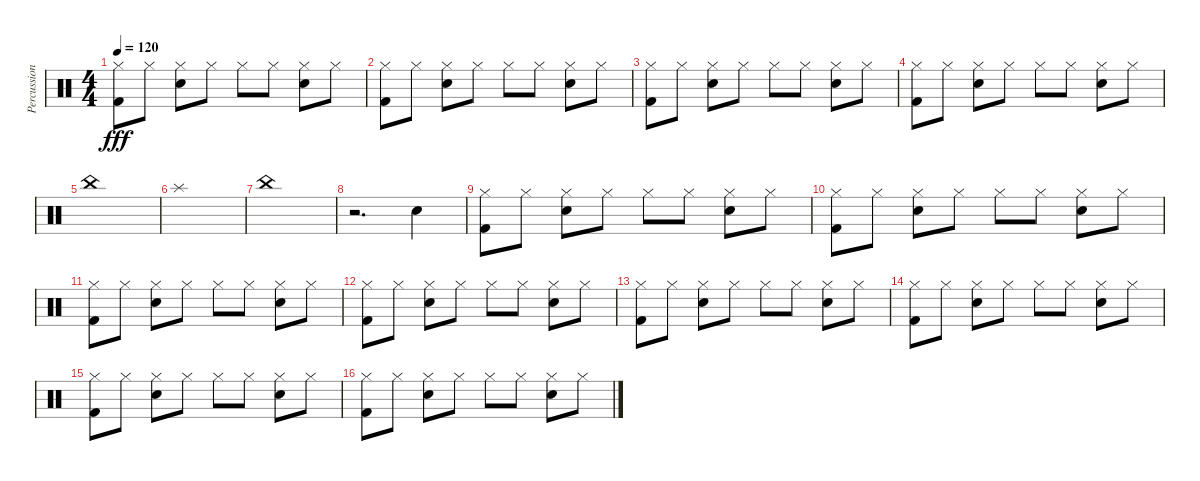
\track ("Percussions" "Percussion") {instrument percussion}
\staff {score}
\articulation defaults
\ts (4 4)
\tempo 120
\clef neutral
\ks c
("Hi-Hat (closed)" "Kick (hit) 2").8{dy fff} "Hi-Hat (closed)".8 ("Hi-Hat (closed)" "Electric Snare (hit)").8 "Hi-Hat (closed)".8 "Hi-Hat (closed)".8 "Hi-Hat (closed)".8 ("Hi-Hat (closed)" "Electric Snare (hit)").8 "Hi-Hat (closed)".8 |
("Hi-Hat (closed)" "Kick (hit) 2").8 "Hi-Hat (closed)".8 ("Hi-Hat (closed)" "Electric Snare (hit)").8 "Hi-Hat (closed)".8 "Hi-Hat (closed)".8 "Hi-Hat (closed)".8 ("Hi-Hat (closed)" "Electric Snare (hit)").8 "Hi-Hat (closed)".8 |
("Hi-Hat (closed)" "Kick (hit) 2").8 "Hi-Hat (closed)".8 ("Hi-Hat (closed)" "Electric Snare (hit)").8 "Hi-Hat (closed)".8 "Hi-Hat (closed)".8 "Hi-Hat (closed)".8 ("Hi-Hat (closed)" "Electric Snare (hit)").8 "Hi-Hat (closed)".8 |
("Hi-Hat (closed)" "Kick (hit) 2").8 "Hi-Hat (closed)".8 ("Hi-Hat (closed)" "Electric Snare (hit)").8 "Hi-Hat (closed)".8 "Hi-Hat (closed)".8 "Hi-Hat (closed)".8 ("Hi-Hat (closed)" "Electric Snare (hit)").8 "Hi-Hat (closed)".8 |
"China (hit)".1 |
"Splash (hit)".1 |
"China (hit)".1 |
r.2{d} "Electric Snare (hit)".4 |
("Hi-Hat (closed)" "Kick (hit) 2").8 "Hi-Hat (closed)".8 ("Hi-Hat (closed)" "Electric Snare (hit)").8 "Hi-Hat (closed)".8 "Hi-Hat (closed)".8 "Hi-Hat (closed)".8 ("Hi-Hat (closed)" "Electric Snare (hit)").8 "Hi-Hat (closed)".8 |
("Hi-Hat (closed)" "Kick (hit) 2").8 "Hi-Hat (closed)".8 ("Hi-Hat (closed)" "Electric Snare (hit)").8 "Hi-Hat (closed)".8 "Hi-Hat (closed)".8 "Hi-Hat (closed)".8 ("Hi-Hat (closed)" "Electric Snare (hit)").8 "Hi-Hat (closed)".8 |
("Hi-Hat (closed)" "Kick (hit) 2").8 "Hi-Hat (closed)".8 ("Hi-Hat (closed)" "Electric Snare (hit)").8 "Hi-Hat (closed)".8 "Hi-Hat (closed)".8 "Hi-Hat (closed)".8 ("Hi-Hat (closed)" "Electric Snare (hit)").8 "Hi-Hat (closed)".8 |
("Hi-Hat (closed)" "Kick (hit) 2").8 "Hi-Hat (closed)".8 ("Hi-Hat (closed)" "Electric Snare (hit)").8 "Hi-Hat (closed)".8 "Hi-Hat (closed)".8 "Hi-Hat (closed)".8 ("Hi-Hat (closed)" "Electric Snare (hit)").8 "Hi-Hat (closed)".8 |
("Hi-Hat (closed)" "Kick (hit) 2").8 "Hi-Hat (closed)".8 ("Hi-Hat (closed)" "Electric Snare (hit)").8 "Hi-Hat (closed)".8 "Hi-Hat (closed)".8 "Hi-Hat (closed)".8 ("Hi-Hat (closed)" "Electric Snare (hit)").8 "Hi-Hat (closed)".8 |
("Hi-Hat (closed)" "Kick (hit) 2").8 "Hi-Hat (closed)".8 ("Hi-Hat (closed)" "Electric Snare (hit)").8 "Hi-Hat (closed)".8 "Hi-Hat (closed)".8 "Hi-Hat (closed)".8 ("Hi-Hat (closed)" "Electric Snare (hit)").8 "Hi-Hat (closed)".8 |
("Hi-Hat (closed)" "Kick (hit) 2").8 "Hi-Hat (closed)".8 ("Hi-Hat (closed)" "Electric Snare (hit)").8 "Hi-Hat (closed)".8 "Hi-Hat (closed)".8 "Hi-Hat (closed)".8 ("Hi-Hat (closed)" "Electric Snare (hit)").8 "Hi-Hat (closed)".8 |
("Hi-Hat (closed)" "Kick (hit) 2").8 "Hi-Hat (closed)".8 ("Hi-Hat (closed)" "Electric Snare (hit)").8 "Hi-Hat (closed)".8 "Hi-Hat (closed)".8 "Hi-Hat (closed)".8 ("Hi-Hat (closed)" "Electric Snare (hit)").8 "Hi-Hat (closed)".8
